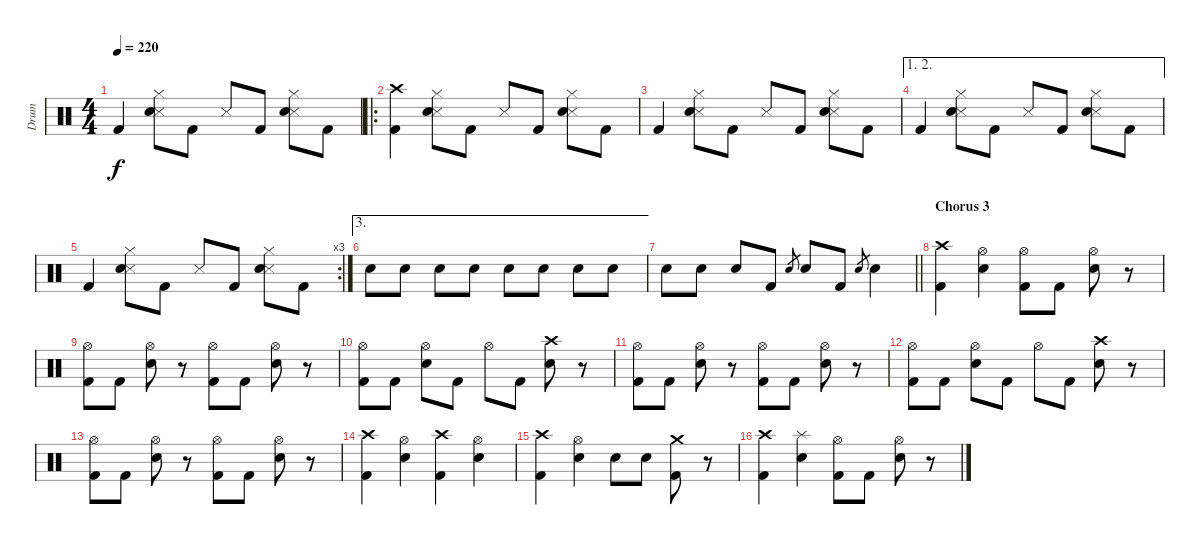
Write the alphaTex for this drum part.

\track ("Drum" "Drum") {instrument percussion}
\staff {score}
\articulation defaults
\ts (4 4)
\tempo 220
\clef neutral
\ks c "Kick (hit) 2".4{dy f}
("Snare (side stick) 3" "Electric Snare (hit)" "Hi-Hat (closed)").8 "Kick (hit) 2".8 "Snare (side stick) 3".8 "Kick (hit) 2".8 ("Snare (side stick) 3" "Electric Snare (hit)" "Hi-Hat (closed)").8 "Kick (hit) 2".8 |
\ro
("Kick (hit) 2" "Crash high (hit)").4 ("Snare (side stick) 3" "Electric Snare (hit)" "Hi-Hat (closed)").8 "Kick (hit) 2".8 "Snare (side stick) 3".8 "Kick (hit) 2".8 ("Snare (side stick) 3" "Electric Snare (hit)" "Hi-Hat (closed)").8 "Kick (hit) 2".8 |
"Kick (hit) 2".4 ("Snare (side stick) 3" "Electric Snare (hit)" "Hi-Hat (closed)").8 "Kick (hit) 2".8 "Snare (side stick) 3".8 "Kick (hit) 2".8 ("Snare (side stick) 3" "Electric Snare (hit)" "Hi-Hat (closed)").8 "Kick (hit) 2".8 |
\ae (1 2)
"Kick (hit) 2".4 ("Snare (side stick) 3" "Electric Snare (hit)" "Hi-Hat (closed)").8 "Kick (hit) 2".8 "Snare (side stick) 3".8 "Kick (hit) 2".8 ("Snare (side stick) 3" "Electric Snare (hit)" "Hi-Hat (closed)").8 "Kick (hit) 2".8 |
\rc 3 "Kick (hit) 2".4
("Snare (side stick) 3" "Electric Snare (hit)" "Hi-Hat (closed)").8 "Kick (hit) 2".8 "Snare (side stick) 3".8 "Kick (hit) 2".8 ("Snare (side stick) 3" "Electric Snare (hit)" "Hi-Hat (closed)").8 "Kick (hit) 2".8 |
\ae 3 "Electric Snare (hit)".8 "Electric Snare (hit)".8 "Electric Snare (hit)".8 "Electric Snare (hit)".8 "Electric Snare (hit)".8 "Electric Snare (hit)".8 "Electric Snare (hit)".8 "Electric Snare (hit)".8
|
\barLineRight lightlight "Electric Snare (hit)".8 "Electric Snare (hit)".8 "Electric Snare (hit)".8 "Kick (hit) 2".8 "Electric Snare (hit)".8{gr} "Electric Snare (hit)".8 "Kick (hit) 2".8 "Electric Snare (hit)".8{gr} "Electric Snare (hit)".4
|
\section ("" "Chorus 3")
("Crash high (hit)" "Kick (hit) 2").4 ("Electric Snare (hit)" "Hi-Hat (open)").4 ("Kick (hit) 2" "Hi-Hat (open)").8 "Kick (hit) 2".8 ("Electric Snare (hit)" "Hi-Hat (open)").8 r.8 |
("Kick (hit) 2" "Hi-Hat (open)").8 "Kick (hit) 2".8 ("Electric Snare (hit)" "Hi-Hat (open)").8 r.8 ("Kick (hit) 2" "Hi-Hat (open)").8 "Kick (hit) 2".8 ("Electric Snare (hit)" "Hi-Hat (open)").8 r.8 |
("Kick (hit) 2" "Hi-Hat (open)").8 "Kick (hit) 2".8 ("Electric Snare (hit)" "Hi-Hat (open)").8 "Kick (hit) 2".8 "Hi-Hat (open)".8 "Kick (hit) 2".8 ("Electric Snare (hit)" "Crash high (hit)").8 r.8 |
("Kick (hit) 2" "Hi-Hat (open)").8 "Kick (hit) 2".8 ("Electric Snare (hit)" "Hi-Hat (open)").8 r.8 ("Kick (hit) 2" "Hi-Hat (open)").8 "Kick (hit) 2".8 ("Electric Snare (hit)" "Hi-Hat (open)").8 r.8 |
("Kick (hit) 2" "Hi-Hat (open)").8 "Kick (hit) 2".8 ("Electric Snare (hit)" "Hi-Hat (open)").8 "Kick (hit) 2".8 "Hi-Hat (open)".8 "Kick (hit) 2".8 ("Electric Snare (hit)" "Crash high (hit)").8 r.8 |
("Kick (hit) 2" "Hi-Hat (open)").8 "Kick (hit) 2".8 ("Electric Snare (hit)" "Hi-Hat (open)").8 r.8 ("Kick (hit) 2" "Hi-Hat (open)").8 "Kick (hit) 2".8 ("Electric Snare (hit)" "Hi-Hat (open)").8 r.8 |
("Kick (hit) 2" "Crash high (hit)").4 ("Electric Snare (hit)" "Hi-Hat (open)").4 ("Kick (hit) 2" "Crash high (hit)").4 ("Electric Snare (hit)" "Hi-Hat (open)").4 |
("Kick (hit) 2" "Crash high (hit)").4 ("Electric Snare (hit)" "Hi-Hat (open)").4 "Electric Snare (hit)".8 "Electric Snare (hit)".8 ("Kick (hit) 2" "Crash medium (hit)").8 r.8 |
("Crash high (hit)" "Kick (hit) 2").4 ("Splash (hit)" "Electric Snare (hit)").4 ("Kick (hit) 2" "Hi-Hat (open)").8 "Kick (hit) 2".8 ("Electric Snare (hit)" "Hi-Hat (open)").8 r.8
